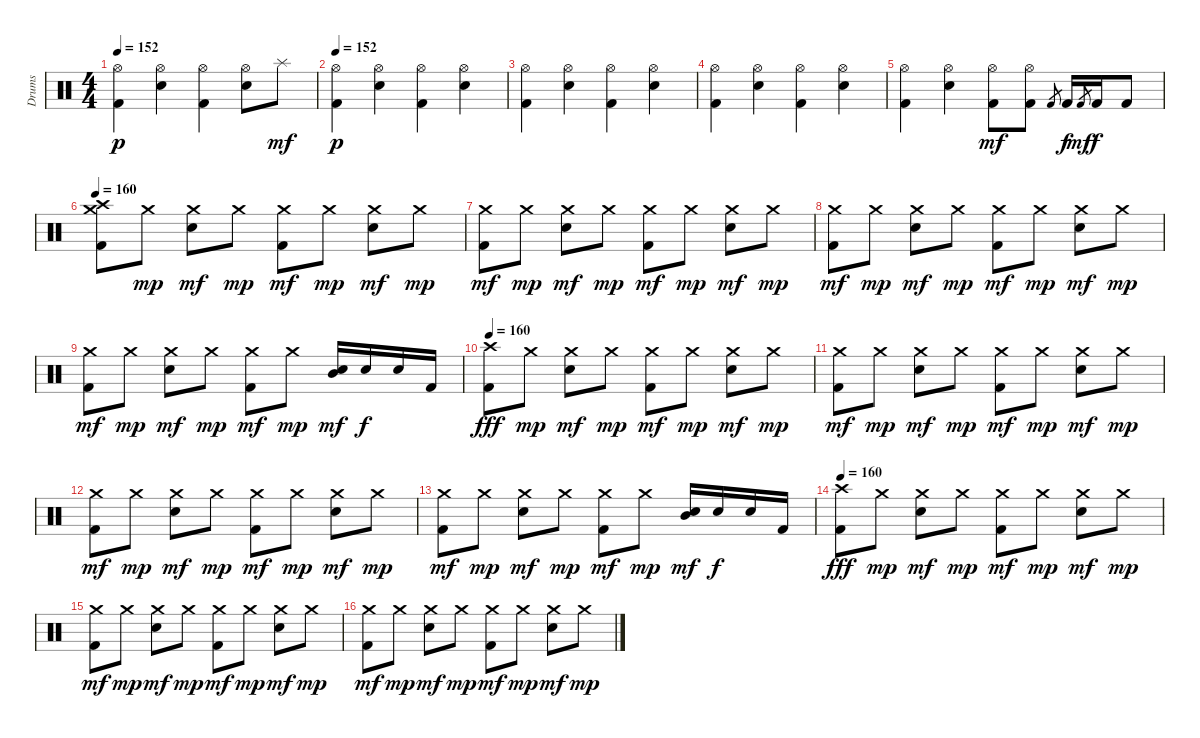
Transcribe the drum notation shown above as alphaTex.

\track ("Drums" "Drums") {instrument percussion}
\staff {score}
\articulation defaults
\ts (4 4)
\tempo 152
\clef neutral
\ks c
("Hi-Hat (open)" "Kick (hit) 2").4{dy p} ("Hi-Hat (open)" "Snare (hit) 2").4 ("Hi-Hat (open)" "Kick (hit) 2").4 ("Hi-Hat (open)" "Snare (hit) 2").8 "Splash (hit)".8{dy mf} |
\tempo 152
("Hi-Hat (open)" "Kick (hit) 2").4{dy p} ("Hi-Hat (open)" "Snare (hit) 2").4 ("Hi-Hat (open)" "Kick (hit) 2").4 ("Hi-Hat (open)" "Snare (hit) 2").4 |
("Hi-Hat (open)" "Kick (hit) 2").4 ("Hi-Hat (open)" "Snare (hit) 2").4 ("Hi-Hat (open)" "Kick (hit) 2").4 ("Hi-Hat (open)" "Snare (hit) 2").4 |
("Hi-Hat (open)" "Kick (hit) 2").4 ("Hi-Hat (open)" "Snare (hit) 2").4 ("Hi-Hat (open)" "Kick (hit) 2").4 ("Hi-Hat (open)" "Snare (hit) 2").4 |
("Hi-Hat (open)" "Kick (hit) 2").4 ("Hi-Hat (open)" "Snare (hit) 2").4 ("Hi-Hat (open)" "Kick (hit) 2").8{dy mf} ("Hi-Hat (open)" "Kick (hit) 2").8 "Kick (hit) 2".8{gr} "Kick (hit) 2".16{dy f} "Kick (hit) 2".8{gr dy mf} "Kick (hit) 2".16{dy f} "Kick (hit) 2".8 |
\tempo 160
("Crash medium (hit)" "Crash high (hit)" "Kick (hit) 2").8 "Crash medium (hit)".8{dy mp} ("Crash medium (hit)" "Snare (hit) 2").8{dy mf} "Crash medium (hit)".8{dy mp} ("Crash medium (hit)" "Kick (hit) 2").8{dy mf} "Crash medium (hit)".8{dy mp} ("Crash medium (hit)" "Snare (hit) 2").8{dy mf} "Crash medium (hit)".8{dy mp} |
("Crash medium (hit)" "Kick (hit) 2").8{dy mf} "Crash medium (hit)".8{dy mp} ("Crash medium (hit)" "Snare (hit) 2").8{dy mf} "Crash medium (hit)".8{dy mp} ("Crash medium (hit)" "Kick (hit) 2").8{dy mf} "Crash medium (hit)".8{dy mp} ("Crash medium (hit)" "Snare (hit) 2").8{dy mf} "Crash medium (hit)".8{dy mp} |
("Crash medium (hit)" "Kick (hit) 2").8{dy mf} "Crash medium (hit)".8{dy mp} ("Crash medium (hit)" "Snare (hit) 2").8{dy mf} "Crash medium (hit)".8{dy mp} ("Crash medium (hit)" "Kick (hit) 2").8{dy mf} "Crash medium (hit)".8{dy mp} ("Crash medium (hit)" "Snare (hit) 2").8{dy mf} "Crash medium (hit)".8{dy mp} |
("Crash medium (hit)" "Kick (hit) 2").8{dy mf} "Crash medium (hit)".8{dy mp} ("Crash medium (hit)" "Snare (hit) 2").8{dy mf} "Crash medium (hit)".8{dy mp} ("Crash medium (hit)" "Kick (hit) 2").8{dy mf} "Crash medium (hit)".8{dy mp} ("Mid Tom (hit)" "Snare (hit) 2").16{dy mf} "Snare (hit) 2".16{dy f} "Snare (hit) 2".16 "Kick (hit) 2".16 |
\tempo 160
("Crash high (hit)" "Kick (hit) 2").8{dy fff} "Crash medium (hit)".8{dy mp} ("Crash medium (hit)" "Snare (hit) 2").8{dy mf} "Crash medium (hit)".8{dy mp} ("Crash medium (hit)" "Kick (hit) 2").8{dy mf} "Crash medium (hit)".8{dy mp} ("Crash medium (hit)" "Snare (hit) 2").8{dy mf} "Crash medium (hit)".8{dy mp} |
("Crash medium (hit)" "Kick (hit) 2").8{dy mf} "Crash medium (hit)".8{dy mp} ("Crash medium (hit)" "Snare (hit) 2").8{dy mf} "Crash medium (hit)".8{dy mp} ("Crash medium (hit)" "Kick (hit) 2").8{dy mf} "Crash medium (hit)".8{dy mp} ("Crash medium (hit)" "Snare (hit) 2").8{dy mf} "Crash medium (hit)".8{dy mp} |
("Crash medium (hit)" "Kick (hit) 2").8{dy mf} "Crash medium (hit)".8{dy mp} ("Crash medium (hit)" "Snare (hit) 2").8{dy mf} "Crash medium (hit)".8{dy mp} ("Crash medium (hit)" "Kick (hit) 2").8{dy mf} "Crash medium (hit)".8{dy mp} ("Crash medium (hit)" "Snare (hit) 2").8{dy mf} "Crash medium (hit)".8{dy mp} |
("Crash medium (hit)" "Kick (hit) 2").8{dy mf} "Crash medium (hit)".8{dy mp} ("Crash medium (hit)" "Snare (hit) 2").8{dy mf} "Crash medium (hit)".8{dy mp} ("Crash medium (hit)" "Kick (hit) 2").8{dy mf} "Crash medium (hit)".8{dy mp} ("Mid Tom (hit)" "Snare (hit) 2").16{dy mf} "Snare (hit) 2".16{dy f} "Snare (hit) 2".16 "Kick (hit) 2".16 |
\tempo 160
("Crash high (hit)" "Kick (hit) 2").8{dy fff} "Crash medium (hit)".8{dy mp} ("Crash medium (hit)" "Snare (hit) 2").8{dy mf} "Crash medium (hit)".8{dy mp} ("Crash medium (hit)" "Kick (hit) 2").8{dy mf} "Crash medium (hit)".8{dy mp} ("Crash medium (hit)" "Snare (hit) 2").8{dy mf} "Crash medium (hit)".8{dy mp} |
("Crash medium (hit)" "Kick (hit) 2").8{dy mf} "Crash medium (hit)".8{dy mp} ("Crash medium (hit)" "Snare (hit) 2").8{dy mf} "Crash medium (hit)".8{dy mp} ("Crash medium (hit)" "Kick (hit) 2").8{dy mf} "Crash medium (hit)".8{dy mp} ("Crash medium (hit)" "Snare (hit) 2").8{dy mf} "Crash medium (hit)".8{dy mp} |
("Crash medium (hit)" "Kick (hit) 2").8{dy mf} "Crash medium (hit)".8{dy mp} ("Crash medium (hit)" "Snare (hit) 2").8{dy mf} "Crash medium (hit)".8{dy mp} ("Crash medium (hit)" "Kick (hit) 2").8{dy mf} "Crash medium (hit)".8{dy mp} ("Crash medium (hit)" "Snare (hit) 2").8{dy mf} "Crash medium (hit)".8{dy mp}
